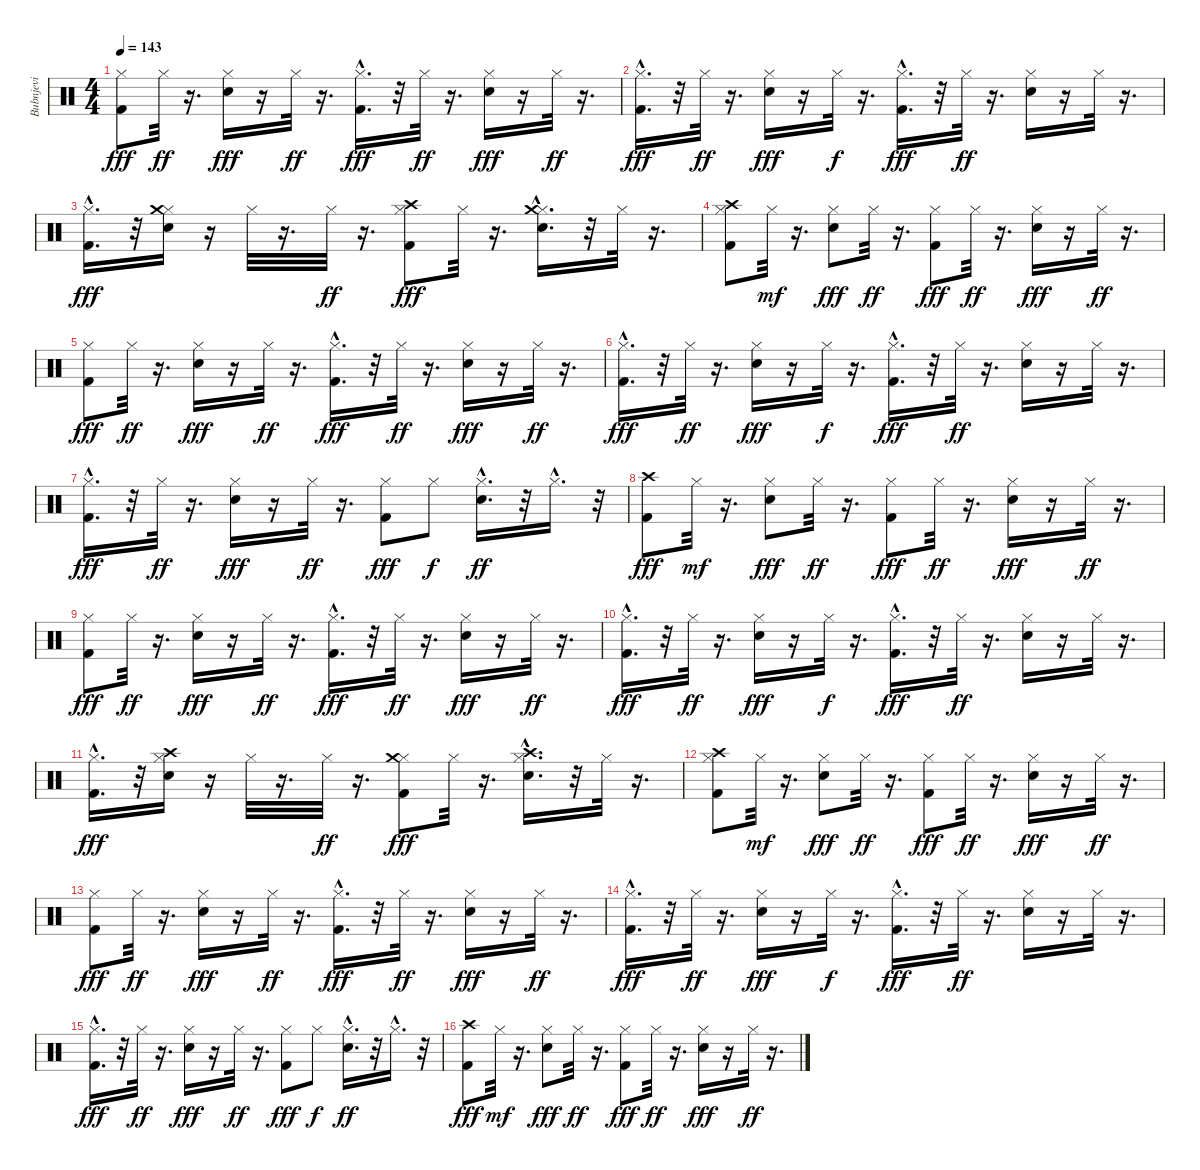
\track ("Bubnjevi" "Bubnjevi") {instrument percussion}
\staff {score}
\articulation defaults
\ts (4 4)
\tempo 143
\clef neutral
\ks c
("Hi-Hat (closed)" "Kick (hit) 2").8{dy fff} "Hi-Hat (closed)".32{dy ff} r.16{d} ("Snare (hit) 2" "Hi-Hat (closed)").16{dy fff} r.16 "Hi-Hat (closed)".32{dy ff} r.16{d} ("Hi-Hat (closed)" "Kick (hit) 2"{hac}).16{d dy fff} r.32 "Hi-Hat (closed)".32{dy ff} r.16{d} ("Hi-Hat (closed)" "Snare (hit) 2").16{dy fff} r.16 "Hi-Hat (closed)".32{dy ff} r.16{d} |
("Hi-Hat (closed)" "Kick (hit) 2"{hac}).16{d dy fff} r.32 "Hi-Hat (closed)".32{dy ff} r.16{d} ("Snare (hit) 2" "Hi-Hat (closed)").16{dy fff} r.16 "Hi-Hat (closed)".32{dy f} r.16{d} ("Hi-Hat (closed)" "Kick (hit) 2"{hac}).16{d dy fff} r.32 "Hi-Hat (closed)".32{dy ff} r.16{d} ("Snare (hit) 2" "Hi-Hat (closed)").16 r.16 "Hi-Hat (closed)".32 r.16{d} |
("Hi-Hat (closed)" "Kick (hit) 2"{hac}).16{d dy fff} r.32 ("Snare (hit) 2" "Hi-Hat (closed)" "Crash medium (hit)").16 r.16 "Hi-Hat (closed)".32 r.16{d} "Hi-Hat (closed)".32{dy ff} r.16{d} ("Hi-Hat (closed)" "Crash high (hit)" "Kick (hit) 2").8{dy fff} "Hi-Hat (closed)".32 r.16{d} ("Snare (hit) 2"{hac} "Hi-Hat (closed)" "Crash medium (hit)").16{d} r.32 "Hi-Hat (closed)".32 r.16{d} |
("Crash high (hit)" "Hi-Hat (closed)" "Kick (hit) 2").8 "Hi-Hat (closed)".32{dy mf} r.16{d} ("Snare (hit) 2" "Hi-Hat (closed)").8{dy fff} "Hi-Hat (closed)".32{dy ff} r.16{d} ("Hi-Hat (closed)" "Kick (hit) 2").8{dy fff} "Hi-Hat (closed)".32{dy ff} r.16{d} ("Snare (hit) 2" "Hi-Hat (closed)").16{dy fff} r.16 "Hi-Hat (closed)".32{dy ff} r.16{d} |
("Hi-Hat (closed)" "Kick (hit) 2").8{dy fff} "Hi-Hat (closed)".32{dy ff} r.16{d} ("Snare (hit) 2" "Hi-Hat (closed)").16{dy fff} r.16 "Hi-Hat (closed)".32{dy ff} r.16{d} ("Hi-Hat (closed)" "Kick (hit) 2"{hac}).16{d dy fff} r.32 "Hi-Hat (closed)".32{dy ff} r.16{d} ("Hi-Hat (closed)" "Snare (hit) 2").16{dy fff} r.16 "Hi-Hat (closed)".32{dy ff} r.16{d} |
("Hi-Hat (closed)" "Kick (hit) 2"{hac}).16{d dy fff} r.32 "Hi-Hat (closed)".32{dy ff} r.16{d} ("Snare (hit) 2" "Hi-Hat (closed)").16{dy fff} r.16 "Hi-Hat (closed)".32{dy f} r.16{d} ("Hi-Hat (closed)" "Kick (hit) 2"{hac}).16{d dy fff} r.32 "Hi-Hat (closed)".32{dy ff} r.16{d} ("Snare (hit) 2" "Hi-Hat (closed)").16 r.16 "Hi-Hat (closed)".32 r.16{d} |
("Hi-Hat (closed)" "Kick (hit) 2"{hac}).16{d dy fff} r.32 "Hi-Hat (closed)".32{dy ff} r.16{d} ("Snare (hit) 2" "Hi-Hat (closed)").16{dy fff} r.16 "Hi-Hat (closed)".32{dy ff} r.16{d} ("Hi-Hat (closed)" "Kick (hit) 2").8{dy fff} "Hi-Hat (closed)".8{dy f} ("Snare (hit) 2"{hac} "Hi-Hat (closed)").16{d dy ff} r.32 "Hi-Hat (closed)"{hac}.16{d} r.32 |
("Crash high (hit)" "Kick (hit) 2").8{dy fff} "Hi-Hat (closed)".32{dy mf} r.16{d} ("Snare (hit) 2" "Hi-Hat (closed)").8{dy fff} "Hi-Hat (closed)".32{dy ff} r.16{d} ("Hi-Hat (closed)" "Kick (hit) 2").8{dy fff} "Hi-Hat (closed)".32{dy ff} r.16{d} ("Snare (hit) 2" "Hi-Hat (closed)").16{dy fff} r.16 "Hi-Hat (closed)".32{dy ff} r.16{d} |
("Hi-Hat (closed)" "Kick (hit) 2").8{dy fff} "Hi-Hat (closed)".32{dy ff} r.16{d} ("Snare (hit) 2" "Hi-Hat (closed)").16{dy fff} r.16 "Hi-Hat (closed)".32{dy ff} r.16{d} ("Hi-Hat (closed)" "Kick (hit) 2"{hac}).16{d dy fff} r.32 "Hi-Hat (closed)".32{dy ff} r.16{d} ("Hi-Hat (closed)" "Snare (hit) 2").16{dy fff} r.16 "Hi-Hat (closed)".32{dy ff} r.16{d} |
("Hi-Hat (closed)" "Kick (hit) 2"{hac}).16{d dy fff} r.32 "Hi-Hat (closed)".32{dy ff} r.16{d} ("Snare (hit) 2" "Hi-Hat (closed)").16{dy fff} r.16 "Hi-Hat (closed)".32{dy f} r.16{d} ("Hi-Hat (closed)" "Kick (hit) 2"{hac}).16{d dy fff} r.32 "Hi-Hat (closed)".32{dy ff} r.16{d} ("Snare (hit) 2" "Hi-Hat (closed)").16 r.16 "Hi-Hat (closed)".32 r.16{d} |
("Hi-Hat (closed)" "Kick (hit) 2"{hac}).16{d dy fff} r.32 ("Snare (hit) 2" "Hi-Hat (closed)" "Crash high (hit)").16 r.16 "Hi-Hat (closed)".32 r.16{d} "Hi-Hat (closed)".32{dy ff} r.16{d} ("Hi-Hat (closed)" "Crash medium (hit)" "Kick (hit) 2").8{dy fff} "Hi-Hat (closed)".32 r.16{d} ("Snare (hit) 2"{hac} "Hi-Hat (closed)" "Crash high (hit)").16{d} r.32 "Hi-Hat (closed)".32 r.16{d} |
("Crash high (hit)" "Hi-Hat (closed)" "Kick (hit) 2").8 "Hi-Hat (closed)".32{dy mf} r.16{d} ("Snare (hit) 2" "Hi-Hat (closed)").8{dy fff} "Hi-Hat (closed)".32{dy ff} r.16{d} ("Hi-Hat (closed)" "Kick (hit) 2").8{dy fff} "Hi-Hat (closed)".32{dy ff} r.16{d} ("Snare (hit) 2" "Hi-Hat (closed)").16{dy fff} r.16 "Hi-Hat (closed)".32{dy ff} r.16{d} |
("Hi-Hat (closed)" "Kick (hit) 2").8{dy fff} "Hi-Hat (closed)".32{dy ff} r.16{d} ("Snare (hit) 2" "Hi-Hat (closed)").16{dy fff} r.16 "Hi-Hat (closed)".32{dy ff} r.16{d} ("Hi-Hat (closed)" "Kick (hit) 2"{hac}).16{d dy fff} r.32 "Hi-Hat (closed)".32{dy ff} r.16{d} ("Hi-Hat (closed)" "Snare (hit) 2").16{dy fff} r.16 "Hi-Hat (closed)".32{dy ff} r.16{d} |
("Hi-Hat (closed)" "Kick (hit) 2"{hac}).16{d dy fff} r.32 "Hi-Hat (closed)".32{dy ff} r.16{d} ("Snare (hit) 2" "Hi-Hat (closed)").16{dy fff} r.16 "Hi-Hat (closed)".32{dy f} r.16{d} ("Hi-Hat (closed)" "Kick (hit) 2"{hac}).16{d dy fff} r.32 "Hi-Hat (closed)".32{dy ff} r.16{d} ("Snare (hit) 2" "Hi-Hat (closed)").16 r.16 "Hi-Hat (closed)".32 r.16{d} |
("Hi-Hat (closed)" "Kick (hit) 2"{hac}).16{d dy fff} r.32 "Hi-Hat (closed)".32{dy ff} r.16{d} ("Snare (hit) 2" "Hi-Hat (closed)").16{dy fff} r.16 "Hi-Hat (closed)".32{dy ff} r.16{d} ("Hi-Hat (closed)" "Kick (hit) 2").8{dy fff} "Hi-Hat (closed)".8{dy f} ("Snare (hit) 2"{hac} "Hi-Hat (closed)").16{d dy ff} r.32 "Hi-Hat (closed)"{hac}.16{d} r.32 |
("Crash high (hit)" "Kick (hit) 2").8{dy fff} "Hi-Hat (closed)".32{dy mf} r.16{d} ("Snare (hit) 2" "Hi-Hat (closed)").8{dy fff} "Hi-Hat (closed)".32{dy ff} r.16{d} ("Hi-Hat (closed)" "Kick (hit) 2").8{dy fff} "Hi-Hat (closed)".32{dy ff} r.16{d} ("Snare (hit) 2" "Hi-Hat (closed)").16{dy fff} r.16 "Hi-Hat (closed)".32{dy ff} r.16{d}
